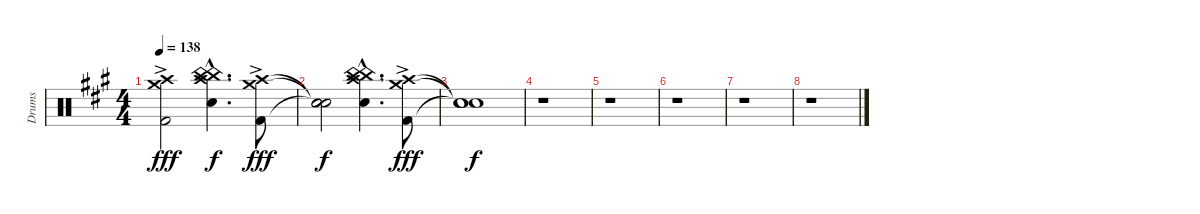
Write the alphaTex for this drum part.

\track ("Drums" "Drums") {instrument percussion}
\staff {score}
\articulation defaults
\ts (4 4)
\tempo 138
\clef neutral
\ks f#minor
("Crash high (hit)" "Crash medium (hit)" "Kick (hit) 2"{ac}).2{dy fff} ("China (hit)"{hac} "China (hit)"{hac} "Snare (hit) 2"{hac} "Crash high (hit)"{hac}).4{d dy f} ("Crash high (hit)" "Crash medium (hit)" "Kick (hit) 2"{ac}).8{dy fff} |
("Snare (hit)"{t} "Snare (hit)"{t} "Snare (hit)"{t}).2{dy f} ("China (hit)"{hac} "China (hit)"{hac} "Snare (hit) 2"{hac} "Crash high (hit)"{hac}).4{d} ("Crash high (hit)" "Crash medium (hit)" "Kick (hit) 2"{ac}).8{dy fff} |
("Snare (hit)"{t} "Snare (hit)"{t} "Snare (hit)"{t}).1{dy f} |
r.1 |
r.1 |
r.1 |
r.1 |
r.1
